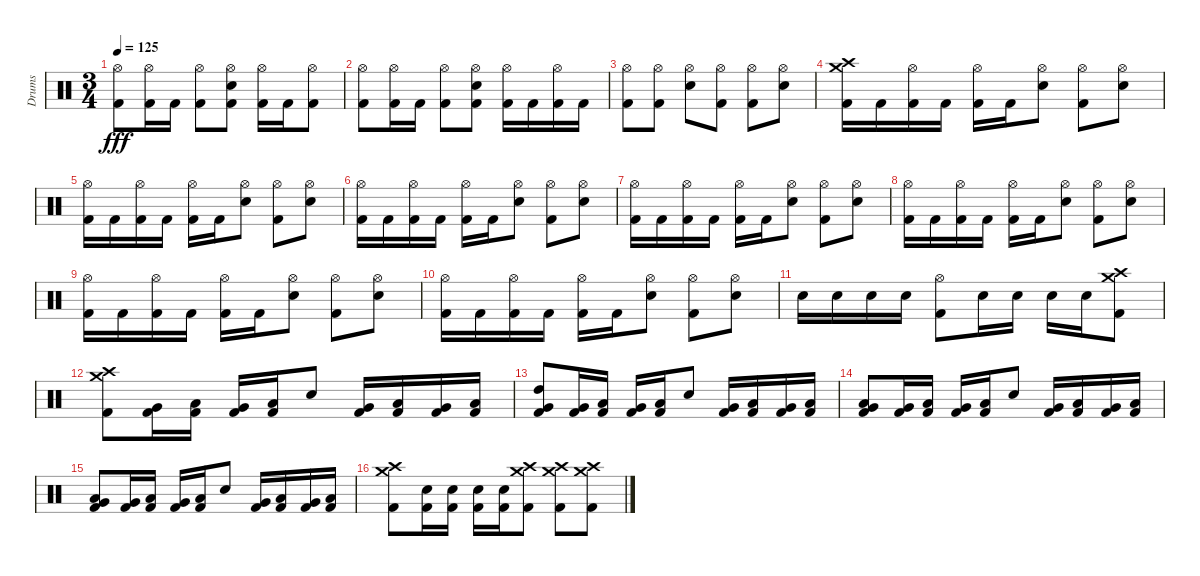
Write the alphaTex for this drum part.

\track ("Drums" "Drums") {instrument percussion}
\staff {score}
\articulation defaults
\ts (3 4)
\tempo 125
\clef neutral
\ks c
("Kick (hit) 2" "Hi-Hat (open)").8{dy fff} ("Kick (hit) 2" "Hi-Hat (open)").16 "Kick (hit) 2".16 ("Kick (hit) 2" "Hi-Hat (open)").8 ("Kick (hit) 2" "Electric Snare (hit)" "Hi-Hat (open)").8 ("Kick (hit) 2" "Hi-Hat (open)").16 "Kick (hit) 2".16 ("Kick (hit) 2" "Hi-Hat (open)").8 |
("Kick (hit) 2" "Hi-Hat (open)").8 ("Kick (hit) 2" "Hi-Hat (open)").16 "Kick (hit) 2".16 ("Kick (hit) 2" "Hi-Hat (open)").8 ("Kick (hit) 2" "Electric Snare (hit)" "Hi-Hat (open)").8 ("Kick (hit) 2" "Hi-Hat (open)").16 "Kick (hit) 2".16 ("Kick (hit) 2" "Hi-Hat (open)").16 "Kick (hit) 2".16 |
("Kick (hit) 2" "Hi-Hat (open)").8 ("Kick (hit) 2" "Hi-Hat (open)").8 ("Electric Snare (hit)" "Hi-Hat (open)").8 ("Kick (hit) 2" "Hi-Hat (open)").8 ("Kick (hit) 2" "Hi-Hat (open)").8 ("Electric Snare (hit)" "Hi-Hat (open)").8 |
("Kick (hit) 2" "Crash medium (hit)" "Crash high (hit)").16 "Kick (hit) 2".16 ("Kick (hit) 2" "Hi-Hat (open)").16 "Kick (hit) 2".16 ("Kick (hit) 2" "Hi-Hat (open)").16 "Kick (hit) 2".16 ("Electric Snare (hit)" "Hi-Hat (open)").8 ("Kick (hit) 2" "Hi-Hat (open)").8 ("Electric Snare (hit)" "Hi-Hat (open)").8 |
("Kick (hit) 2" "Hi-Hat (open)").16 "Kick (hit) 2".16 ("Kick (hit) 2" "Hi-Hat (open)").16 "Kick (hit) 2".16 ("Kick (hit) 2" "Hi-Hat (open)").16 "Kick (hit) 2".16 ("Electric Snare (hit)" "Hi-Hat (open)").8 ("Kick (hit) 2" "Hi-Hat (open)").8 ("Electric Snare (hit)" "Hi-Hat (open)").8 |
("Kick (hit) 2" "Hi-Hat (open)").16 "Kick (hit) 2".16 ("Kick (hit) 2" "Hi-Hat (open)").16 "Kick (hit) 2".16 ("Kick (hit) 2" "Hi-Hat (open)").16 "Kick (hit) 2".16 ("Electric Snare (hit)" "Hi-Hat (open)").8 ("Kick (hit) 2" "Hi-Hat (open)").8 ("Electric Snare (hit)" "Hi-Hat (open)").8 |
("Kick (hit) 2" "Hi-Hat (open)").16 "Kick (hit) 2".16 ("Kick (hit) 2" "Hi-Hat (open)").16 "Kick (hit) 2".16 ("Kick (hit) 2" "Hi-Hat (open)").16 "Kick (hit) 2".16 ("Electric Snare (hit)" "Hi-Hat (open)").8 ("Kick (hit) 2" "Hi-Hat (open)").8 ("Electric Snare (hit)" "Hi-Hat (open)").8 |
("Kick (hit) 2" "Hi-Hat (open)").16 "Kick (hit) 2".16 ("Kick (hit) 2" "Hi-Hat (open)").16 "Kick (hit) 2".16 ("Kick (hit) 2" "Hi-Hat (open)").16 "Kick (hit) 2".16 ("Electric Snare (hit)" "Hi-Hat (open)").8 ("Kick (hit) 2" "Hi-Hat (open)").8 ("Electric Snare (hit)" "Hi-Hat (open)").8 |
("Kick (hit) 2" "Hi-Hat (open)").16 "Kick (hit) 2".16 ("Kick (hit) 2" "Hi-Hat (open)").16 "Kick (hit) 2".16 ("Kick (hit) 2" "Hi-Hat (open)").16 "Kick (hit) 2".16 ("Electric Snare (hit)" "Hi-Hat (open)").8 ("Kick (hit) 2" "Hi-Hat (open)").8 ("Electric Snare (hit)" "Hi-Hat (open)").8 |
("Kick (hit) 2" "Hi-Hat (open)").16 "Kick (hit) 2".16 ("Kick (hit) 2" "Hi-Hat (open)").16 "Kick (hit) 2".16 ("Kick (hit) 2" "Hi-Hat (open)").16 "Kick (hit) 2".16 ("Electric Snare (hit)" "Hi-Hat (open)").8 ("Kick (hit) 2" "Hi-Hat (open)").8 ("Electric Snare (hit)" "Hi-Hat (open)").8 |
"Electric Snare (hit)".16 "Electric Snare (hit)".16 "Electric Snare (hit)".16 "Electric Snare (hit)".16 ("Kick (hit) 2" "Hi-Hat (open)").8 "Electric Snare (hit)".16 "Electric Snare (hit)".16 "Electric Snare (hit)".16 "Electric Snare (hit)".16 ("Kick (hit) 2" "Crash medium (hit)" "Crash high (hit)").8 |
("Kick (hit) 2" "Crash medium (hit)" "Crash high (hit)").8 ("Kick (hit) 2" "Very Low Tom (hit)").16 ("Kick (hit) 2" "Low Tom (hit)").16 ("Kick (hit) 2" "Very Low Tom (hit)").16 ("Kick (hit) 2" "Low Tom (hit)").16 "Electric Snare (hit)".8 ("Kick (hit) 2" "Very Low Tom (hit)").16 ("Kick (hit) 2" "Low Tom (hit)").16 ("Kick (hit) 2" "Very Low Tom (hit)").16 ("Kick (hit) 2" "Low Tom (hit)").16 |
("Kick (hit) 2" "Very Low Tom (hit)" "High Tom (hit)").8 ("Kick (hit) 2" "Very Low Tom (hit)").16 ("Kick (hit) 2" "Low Tom (hit)").16 ("Kick (hit) 2" "Very Low Tom (hit)").16 ("Kick (hit) 2" "Low Tom (hit)").16 "Electric Snare (hit)".8 ("Kick (hit) 2" "Very Low Tom (hit)").16 ("Kick (hit) 2" "Low Tom (hit)").16 ("Kick (hit) 2" "Very Low Tom (hit)").16 ("Kick (hit) 2" "Low Tom (hit)").16 |
("Kick (hit) 2" "Low Tom (hit)" "Very Low Tom (hit)").8 ("Kick (hit) 2" "Very Low Tom (hit)").16 ("Kick (hit) 2" "Low Tom (hit)").16 ("Kick (hit) 2" "Very Low Tom (hit)").16 ("Kick (hit) 2" "Low Tom (hit)").16 "Electric Snare (hit)".8 ("Kick (hit) 2" "Very Low Tom (hit)").16 ("Kick (hit) 2" "Low Tom (hit)").16 ("Kick (hit) 2" "Very Low Tom (hit)").16 ("Kick (hit) 2" "Low Tom (hit)").16 |
("Kick (hit) 2" "Low Tom (hit)" "Very Low Tom (hit)").8 ("Kick (hit) 2" "Very Low Tom (hit)").16 ("Kick (hit) 2" "Low Tom (hit)").16 ("Kick (hit) 2" "Very Low Tom (hit)").16 ("Kick (hit) 2" "Low Tom (hit)").16 "Electric Snare (hit)".8 ("Kick (hit) 2" "Very Low Tom (hit)").16 ("Kick (hit) 2" "Low Tom (hit)").16 ("Kick (hit) 2" "Very Low Tom (hit)").16 ("Kick (hit) 2" "Low Tom (hit)").16 |
("Kick (hit) 2" "Crash high (hit)" "Crash medium (hit)").8 ("Kick (hit) 2" "Electric Snare (hit)").16 ("Kick (hit) 2" "Electric Snare (hit)").16 ("Kick (hit) 2" "Electric Snare (hit)").16 ("Kick (hit) 2" "Electric Snare (hit)").16 ("Kick (hit) 2" "Crash medium (hit)" "Crash high (hit)").8 ("Kick (hit) 2" "Crash medium (hit)" "Crash high (hit)").8 ("Kick (hit) 2" "Crash medium (hit)" "Crash high (hit)").8
